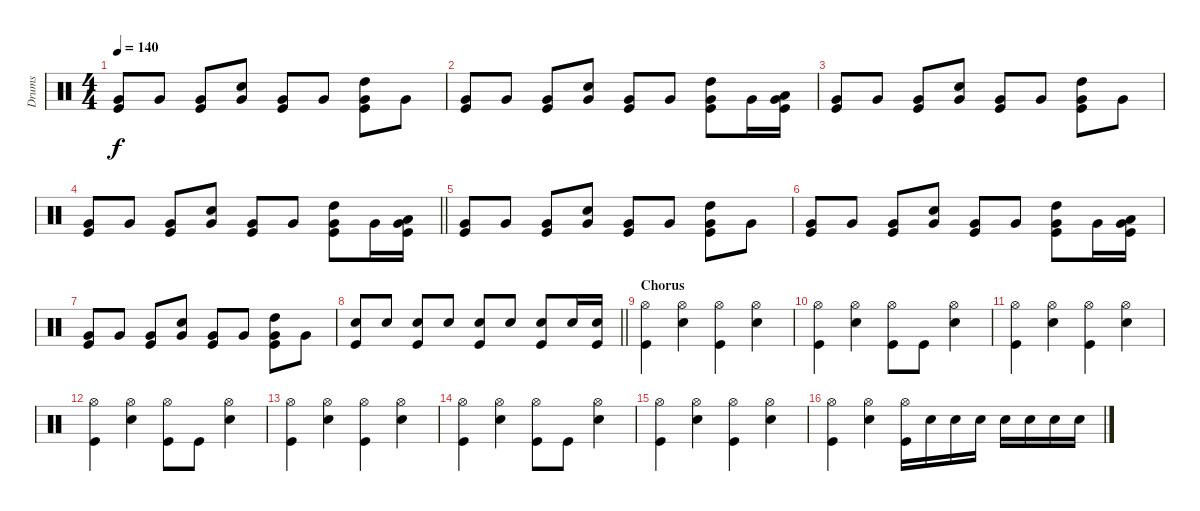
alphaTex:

\track ("Drums" "Drums") {instrument percussion}
\staff {score}
\articulation defaults
\ts (4 4)
\tempo 140
\clef neutral
\ks c
("Very Low Tom (hit)" "Kick (hit)").8{dy f} "Very Low Tom (hit)".8 ("Very Low Tom (hit)" "Kick (hit)").8 ("Snare (hit) 2" "Very Low Tom (hit)").8 ("Very Low Tom (hit)" "Kick (hit)").8 "Very Low Tom (hit)".8 ("High Tom (hit)" "Very Low Tom (hit)" "Kick (hit)").8 "Very Low Tom (hit)".8 |
("Very Low Tom (hit)" "Kick (hit)").8 "Very Low Tom (hit)".8 ("Very Low Tom (hit)" "Kick (hit)").8 ("Snare (hit) 2" "Very Low Tom (hit)").8 ("Very Low Tom (hit)" "Kick (hit)").8 "Very Low Tom (hit)".8 ("High Tom (hit)" "Very Low Tom (hit)" "Kick (hit)").8 "Very Low Tom (hit)".16 ("Low Tom (hit)" "Very Low Tom (hit)" "Kick (hit)").16 |
("Very Low Tom (hit)" "Kick (hit)").8 "Very Low Tom (hit)".8 ("Very Low Tom (hit)" "Kick (hit)").8 ("Snare (hit) 2" "Very Low Tom (hit)").8 ("Very Low Tom (hit)" "Kick (hit)").8 "Very Low Tom (hit)".8 ("High Tom (hit)" "Very Low Tom (hit)" "Kick (hit)").8 "Very Low Tom (hit)".8 |
\barLineRight lightlight
("Very Low Tom (hit)" "Kick (hit)").8 "Very Low Tom (hit)".8 ("Very Low Tom (hit)" "Kick (hit)").8 ("Snare (hit) 2" "Very Low Tom (hit)").8 ("Very Low Tom (hit)" "Kick (hit)").8 "Very Low Tom (hit)".8 ("High Tom (hit)" "Very Low Tom (hit)" "Kick (hit)").8 "Very Low Tom (hit)".16 ("Low Tom (hit)" "Very Low Tom (hit)" "Kick (hit)").16 |
("Very Low Tom (hit)" "Kick (hit)").8 "Very Low Tom (hit)".8 ("Very Low Tom (hit)" "Kick (hit)").8 ("Snare (hit) 2" "Very Low Tom (hit)").8 ("Very Low Tom (hit)" "Kick (hit)").8 "Very Low Tom (hit)".8 ("High Tom (hit)" "Very Low Tom (hit)" "Kick (hit)").8 "Very Low Tom (hit)".8 |
("Very Low Tom (hit)" "Kick (hit)").8 "Very Low Tom (hit)".8 ("Very Low Tom (hit)" "Kick (hit)").8 ("Snare (hit) 2" "Very Low Tom (hit)").8 ("Very Low Tom (hit)" "Kick (hit)").8 "Very Low Tom (hit)".8 ("High Tom (hit)" "Very Low Tom (hit)" "Kick (hit)").8 "Very Low Tom (hit)".16 ("Low Tom (hit)" "Very Low Tom (hit)" "Kick (hit)").16 |
("Very Low Tom (hit)" "Kick (hit)").8 "Very Low Tom (hit)".8 ("Very Low Tom (hit)" "Kick (hit)").8 ("Snare (hit) 2" "Very Low Tom (hit)").8 ("Very Low Tom (hit)" "Kick (hit)").8 "Very Low Tom (hit)".8 ("High Tom (hit)" "Very Low Tom (hit)" "Kick (hit)").8 "Very Low Tom (hit)".8 |
\barLineRight lightlight
("Snare (hit) 2" "Kick (hit)").8 "Snare (hit) 2".8 ("Snare (hit) 2" "Kick (hit)").8 "Snare (hit) 2".8 ("Snare (hit) 2" "Kick (hit)").8 "Snare (hit) 2".8 ("Snare (hit) 2" "Kick (hit)").8 "Snare (hit) 2".16 ("Snare (hit) 2" "Kick (hit)").16 |
\section ("" "Chorus")
("Hi-Hat (open)" "Kick (hit)").4 ("Hi-Hat (open)" "Snare (hit) 2").4 ("Hi-Hat (open)" "Kick (hit)").4 ("Hi-Hat (open)" "Snare (hit) 2").4 |
("Hi-Hat (open)" "Kick (hit)").4 ("Hi-Hat (open)" "Snare (hit) 2").4 ("Hi-Hat (open)" "Kick (hit)").8 "Kick (hit)".8 ("Hi-Hat (open)" "Snare (hit) 2").4 |
("Hi-Hat (open)" "Kick (hit)").4 ("Hi-Hat (open)" "Snare (hit) 2").4 ("Hi-Hat (open)" "Kick (hit)").4 ("Hi-Hat (open)" "Snare (hit) 2").4 |
("Hi-Hat (open)" "Kick (hit)").4 ("Hi-Hat (open)" "Snare (hit) 2").4 ("Hi-Hat (open)" "Kick (hit)").8 "Kick (hit)".8 ("Hi-Hat (open)" "Snare (hit) 2").4 |
("Hi-Hat (open)" "Kick (hit)").4 ("Hi-Hat (open)" "Snare (hit) 2").4 ("Hi-Hat (open)" "Kick (hit)").4 ("Hi-Hat (open)" "Snare (hit) 2").4 |
("Hi-Hat (open)" "Kick (hit)").4 ("Hi-Hat (open)" "Snare (hit) 2").4 ("Hi-Hat (open)" "Kick (hit)").8 "Kick (hit)".8 ("Hi-Hat (open)" "Snare (hit) 2").4 |
("Hi-Hat (open)" "Kick (hit)").4 ("Hi-Hat (open)" "Snare (hit) 2").4 ("Hi-Hat (open)" "Kick (hit)").4 ("Hi-Hat (open)" "Snare (hit) 2").4 |
("Hi-Hat (open)" "Kick (hit)").4 ("Hi-Hat (open)" "Snare (hit) 2").4 ("Hi-Hat (open)" "Kick (hit)").16 "Snare (hit) 2".16 "Snare (hit) 2".16 "Snare (hit) 2".16 "Snare (hit) 2".16 "Snare (hit) 2".16 "Snare (hit) 2".16 "Snare (hit) 2".16
